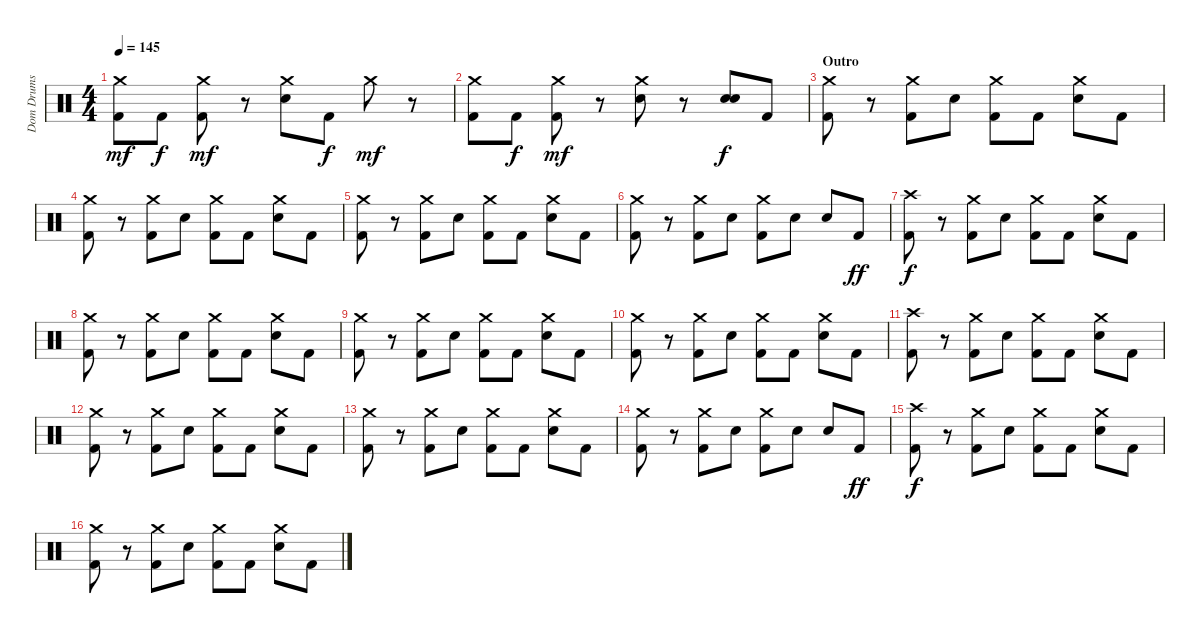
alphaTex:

\track ("Dom Drums" "Dom Drums") {instrument percussion}
\staff {score}
\articulation defaults
\ts (4 4)
\tempo 145
\clef neutral
\ks c
("Crash medium (hit)" "Kick (hit) 2").8{dy mf} "Kick (hit) 2".8{dy f} ("Crash medium (hit)" "Kick (hit) 2").8{dy mf} r.8 ("Crash medium (hit)" "Snare (hit) 2").8 "Kick (hit) 2".8{dy f} "Crash medium (hit)".8{dy mf} r.8 |
("Crash medium (hit)" "Kick (hit) 2").8 "Kick (hit) 2".8{dy f} ("Crash medium (hit)" "Kick (hit) 2").8{dy mf} r.8 ("Crash medium (hit)" "Snare (hit) 2").8 r.8 ("Snare (hit) 2" "Snare (hit) 2").8{dy f} "Kick (hit) 2".8 |
\section ("" "Outro")
("Crash medium (hit)" "Kick (hit) 2").8 r.8 ("Crash medium (hit)" "Kick (hit) 2").8 "Snare (hit) 2".8 ("Crash medium (hit)" "Kick (hit) 2").8 "Kick (hit) 2".8 ("Crash medium (hit)" "Snare (hit) 2").8 "Kick (hit) 2".8 |
("Crash medium (hit)" "Kick (hit) 2").8 r.8 ("Crash medium (hit)" "Kick (hit) 2").8 "Snare (hit) 2".8 ("Crash medium (hit)" "Kick (hit) 2").8 "Kick (hit) 2".8 ("Crash medium (hit)" "Snare (hit) 2").8 "Kick (hit) 2".8 |
("Crash medium (hit)" "Kick (hit) 2").8 r.8 ("Crash medium (hit)" "Kick (hit) 2").8 "Snare (hit) 2".8 ("Crash medium (hit)" "Kick (hit) 2").8 "Kick (hit) 2".8 ("Crash medium (hit)" "Snare (hit) 2").8 "Kick (hit) 2".8 |
("Crash medium (hit)" "Kick (hit) 2").8 r.8 ("Crash medium (hit)" "Kick (hit) 2").8 "Snare (hit) 2".8 ("Crash medium (hit)" "Kick (hit) 2").8 "Snare (hit) 2".8 "Snare (hit) 2".8 "Kick (hit) 2".8{dy ff} |
("Crash high (hit)" "Kick (hit) 2").8{dy f} r.8 ("Crash medium (hit)" "Kick (hit) 2").8 "Snare (hit) 2".8 ("Crash medium (hit)" "Kick (hit) 2").8 "Kick (hit) 2".8 ("Crash medium (hit)" "Snare (hit) 2").8 "Kick (hit) 2".8 |
("Crash medium (hit)" "Kick (hit) 2").8 r.8 ("Crash medium (hit)" "Kick (hit) 2").8 "Snare (hit) 2".8 ("Crash medium (hit)" "Kick (hit) 2").8 "Kick (hit) 2".8 ("Crash medium (hit)" "Snare (hit) 2").8 "Kick (hit) 2".8 |
("Crash medium (hit)" "Kick (hit) 2").8 r.8 ("Crash medium (hit)" "Kick (hit) 2").8 "Snare (hit) 2".8 ("Crash medium (hit)" "Kick (hit) 2").8 "Kick (hit) 2".8 ("Crash medium (hit)" "Snare (hit) 2").8 "Kick (hit) 2".8 |
("Crash medium (hit)" "Kick (hit) 2").8 r.8 ("Crash medium (hit)" "Kick (hit) 2").8 "Snare (hit) 2".8 ("Crash medium (hit)" "Kick (hit) 2").8 "Kick (hit) 2".8 ("Crash medium (hit)" "Snare (hit) 2").8 "Kick (hit) 2".8 |
("Crash high (hit)" "Kick (hit) 2").8 r.8 ("Crash medium (hit)" "Kick (hit) 2").8 "Snare (hit) 2".8 ("Crash medium (hit)" "Kick (hit) 2").8 "Kick (hit) 2".8 ("Crash medium (hit)" "Snare (hit) 2").8 "Kick (hit) 2".8 |
("Crash medium (hit)" "Kick (hit) 2").8 r.8 ("Crash medium (hit)" "Kick (hit) 2").8 "Snare (hit) 2".8 ("Crash medium (hit)" "Kick (hit) 2").8 "Kick (hit) 2".8 ("Crash medium (hit)" "Snare (hit) 2").8 "Kick (hit) 2".8 |
("Crash medium (hit)" "Kick (hit) 2").8 r.8 ("Crash medium (hit)" "Kick (hit) 2").8 "Snare (hit) 2".8 ("Crash medium (hit)" "Kick (hit) 2").8 "Kick (hit) 2".8 ("Crash medium (hit)" "Snare (hit) 2").8 "Kick (hit) 2".8 |
("Crash medium (hit)" "Kick (hit) 2").8 r.8 ("Crash medium (hit)" "Kick (hit) 2").8 "Snare (hit) 2".8 ("Crash medium (hit)" "Kick (hit) 2").8 "Snare (hit) 2".8 "Snare (hit) 2".8 "Kick (hit) 2".8{dy ff} |
("Crash high (hit)" "Kick (hit) 2").8{dy f} r.8 ("Crash medium (hit)" "Kick (hit) 2").8 "Snare (hit) 2".8 ("Crash medium (hit)" "Kick (hit) 2").8 "Kick (hit) 2".8 ("Crash medium (hit)" "Snare (hit) 2").8 "Kick (hit) 2".8 |
("Crash medium (hit)" "Kick (hit) 2").8 r.8 ("Crash medium (hit)" "Kick (hit) 2").8 "Snare (hit) 2".8 ("Crash medium (hit)" "Kick (hit) 2").8 "Kick (hit) 2".8 ("Crash medium (hit)" "Snare (hit) 2").8 "Kick (hit) 2".8
